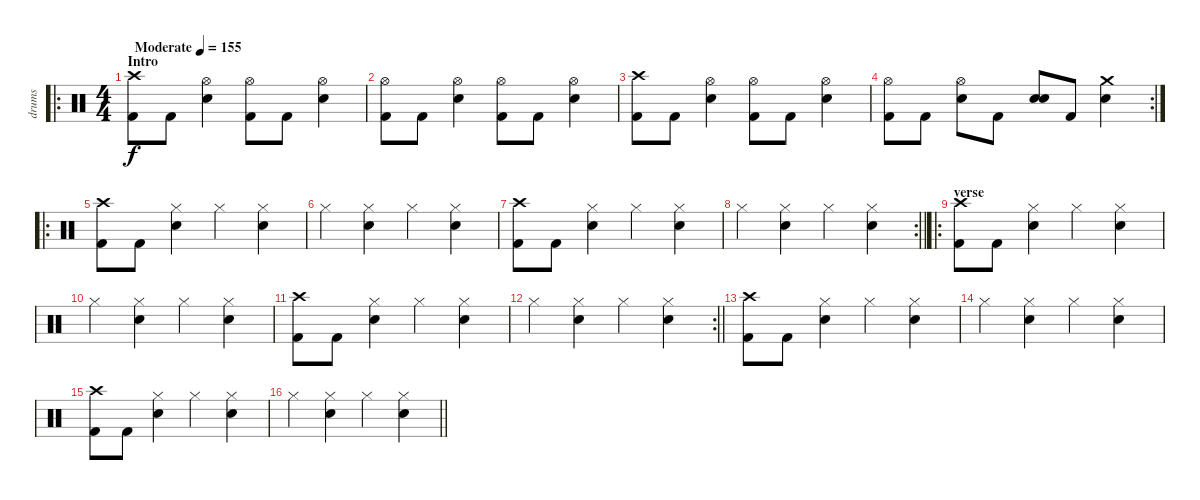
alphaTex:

\track ("drums" "drums") {instrument percussion}
\staff
\articulation defaults
\ro
\ts (4 4)
\section ("" "Intro")
\tempo (155 "Moderate")
\clef neutral
\ks c
("Crash high (hit)" "Kick (hit) 2").8{dy f} "Kick (hit) 2".8 ("Hi-Hat (open)" "Electric Snare (hit)").4 ("Hi-Hat (open)" "Kick (hit) 2").8 "Kick (hit) 2".8 ("Hi-Hat (open)" "Electric Snare (hit)").4 |
("Hi-Hat (open)" "Kick (hit) 2").8 "Kick (hit) 2".8 ("Hi-Hat (open)" "Electric Snare (hit)").4 ("Hi-Hat (open)" "Kick (hit) 2").8 "Kick (hit) 2".8 ("Hi-Hat (open)" "Electric Snare (hit)").4 |
("Crash high (hit)" "Kick (hit) 2").8 "Kick (hit) 2".8 ("Hi-Hat (open)" "Electric Snare (hit)").4 ("Hi-Hat (open)" "Kick (hit) 2").8 "Kick (hit) 2".8 ("Hi-Hat (open)" "Electric Snare (hit)").4 |
\rc 2
("Hi-Hat (open)" "Kick (hit) 2").8 "Kick (hit) 2".8 ("Hi-Hat (open)" "Electric Snare (hit)").8 "Kick (hit) 2".8 ("Electric Snare (hit)" "Electric Snare (hit)").8{bd 480} "Kick (hit) 2".8 ("Crash medium (hit)" "Electric Snare (hit)").4 |
\ro
("Crash high (hit)" "Kick (hit) 2").8 "Kick (hit) 2".8 ("Hi-Hat (closed)" "Electric Snare (hit)").4 "Hi-Hat (closed)".4 ("Hi-Hat (closed)" "Electric Snare (hit)").4 |
"Hi-Hat (closed)".4 ("Hi-Hat (closed)" "Electric Snare (hit)").4 "Hi-Hat (closed)".4 ("Hi-Hat (closed)" "Electric Snare (hit)").4 |
("Crash high (hit)" "Kick (hit) 2").8 "Kick (hit) 2".8 ("Hi-Hat (closed)" "Electric Snare (hit)").4 "Hi-Hat (closed)".4 ("Hi-Hat (closed)" "Electric Snare (hit)").4 |
\rc 2
\barLineRight lightlight "Hi-Hat (closed)".4
("Hi-Hat (closed)" "Electric Snare (hit)").4 "Hi-Hat (closed)".4 ("Hi-Hat (closed)" "Electric Snare (hit)").4 |
\ro
\section ("" "verse")
("Crash high (hit)" "Kick (hit) 2").8 "Kick (hit) 2".8 ("Hi-Hat (closed)" "Electric Snare (hit)").4 "Hi-Hat (closed)".4 ("Hi-Hat (closed)" "Electric Snare (hit)").4 |
"Hi-Hat (closed)".4 ("Hi-Hat (closed)" "Electric Snare (hit)").4 "Hi-Hat (closed)".4 ("Hi-Hat (closed)" "Electric Snare (hit)").4 |
("Crash high (hit)" "Kick (hit) 2").8 "Kick (hit) 2".8 ("Hi-Hat (closed)" "Electric Snare (hit)").4 "Hi-Hat (closed)".4 ("Hi-Hat (closed)" "Electric Snare (hit)").4 |
\rc 2
\barLineRight lightlight "Hi-Hat (closed)".4
("Hi-Hat (closed)" "Electric Snare (hit)").4 "Hi-Hat (closed)".4 ("Hi-Hat (closed)" "Electric Snare (hit)").4 |
("Crash high (hit)" "Kick (hit) 2").8 "Kick (hit) 2".8 ("Hi-Hat (closed)" "Electric Snare (hit)").4 "Hi-Hat (closed)".4 ("Hi-Hat (closed)" "Electric Snare (hit)").4 |
"Hi-Hat (closed)".4 ("Hi-Hat (closed)" "Electric Snare (hit)").4 "Hi-Hat (closed)".4 ("Hi-Hat (closed)" "Electric Snare (hit)").4 |
("Crash high (hit)" "Kick (hit) 2").8 "Kick (hit) 2".8 ("Hi-Hat (closed)" "Electric Snare (hit)").4 "Hi-Hat (closed)".4 ("Hi-Hat (closed)" "Electric Snare (hit)").4 |
\barLineRight lightlight "Hi-Hat (closed)".4
("Hi-Hat (closed)" "Electric Snare (hit)").4 "Hi-Hat (closed)".4 ("Hi-Hat (closed)" "Electric Snare (hit)").4
